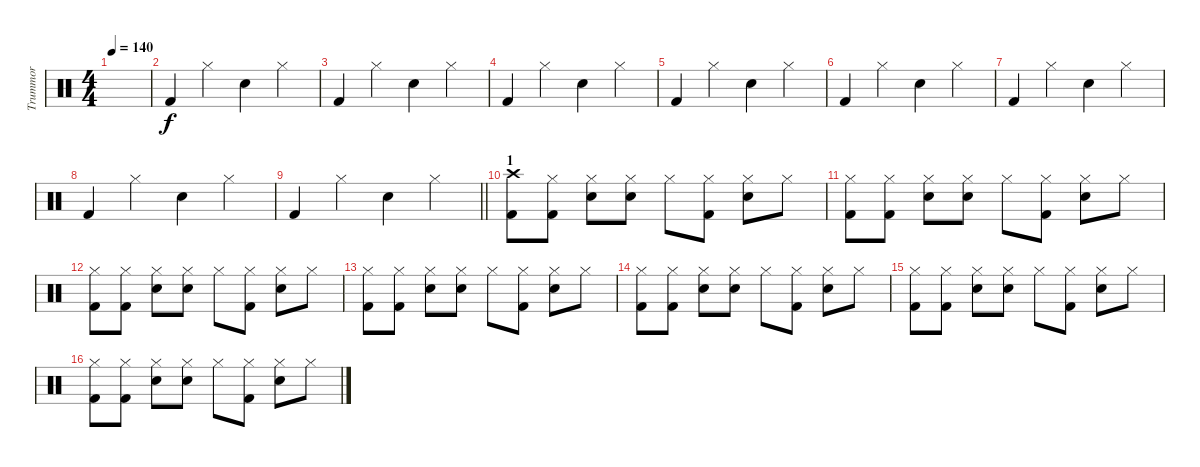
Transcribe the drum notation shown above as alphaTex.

\track ("Trummor" "Trummor") {instrument percussion}
\staff {score}
\articulation defaults
\ts (4 4)
\tempo 140
\clef neutral
\ks c
|
"Kick (hit) 2".4{volume 16} "Hi-Hat (closed)".4 "Electric Snare (hit)".4 "Hi-Hat (closed)".4 |
"Kick (hit) 2".4 "Hi-Hat (closed)".4 "Electric Snare (hit)".4 "Hi-Hat (closed)".4 |
"Kick (hit) 2".4 "Hi-Hat (closed)".4 "Electric Snare (hit)".4 "Hi-Hat (closed)".4 |
"Kick (hit) 2".4 "Hi-Hat (closed)".4 "Electric Snare (hit)".4 "Hi-Hat (closed)".4 |
"Kick (hit) 2".4 "Hi-Hat (closed)".4 "Electric Snare (hit)".4 "Hi-Hat (closed)".4 |
"Kick (hit) 2".4 "Hi-Hat (closed)".4 "Electric Snare (hit)".4 "Hi-Hat (closed)".4 |
"Kick (hit) 2".4 "Hi-Hat (closed)".4 "Electric Snare (hit)".4 "Hi-Hat (closed)".4 |
\barLineRight lightlight "Kick (hit) 2".4 "Hi-Hat (closed)".4 "Electric Snare (hit)".4 "Hi-Hat (closed)".4
|
\section ("" "1")
("Crash high (hit)" "Kick (hit) 2").8 ("Hi-Hat (closed)" "Kick (hit) 2").8 ("Hi-Hat (closed)" "Electric Snare (hit)").8 ("Hi-Hat (closed)" "Electric Snare (hit)").8 "Hi-Hat (closed)".8 ("Hi-Hat (closed)" "Kick (hit) 2").8 ("Hi-Hat (closed)" "Electric Snare (hit)").8 "Hi-Hat (closed)".8 |
("Hi-Hat (closed)" "Kick (hit) 2").8 ("Hi-Hat (closed)" "Kick (hit) 2").8 ("Hi-Hat (closed)" "Electric Snare (hit)").8 ("Hi-Hat (closed)" "Electric Snare (hit)").8 "Hi-Hat (closed)".8 ("Hi-Hat (closed)" "Kick (hit) 2").8 ("Hi-Hat (closed)" "Electric Snare (hit)").8 "Hi-Hat (closed)".8 |
("Hi-Hat (closed)" "Kick (hit) 2").8 ("Hi-Hat (closed)" "Kick (hit) 2").8 ("Hi-Hat (closed)" "Electric Snare (hit)").8 ("Hi-Hat (closed)" "Electric Snare (hit)").8 "Hi-Hat (closed)".8 ("Hi-Hat (closed)" "Kick (hit) 2").8 ("Hi-Hat (closed)" "Electric Snare (hit)").8 "Hi-Hat (closed)".8 |
("Hi-Hat (closed)" "Kick (hit) 2").8 ("Hi-Hat (closed)" "Kick (hit) 2").8 ("Hi-Hat (closed)" "Electric Snare (hit)").8 ("Hi-Hat (closed)" "Electric Snare (hit)").8 "Hi-Hat (closed)".8 ("Hi-Hat (closed)" "Kick (hit) 2").8 ("Hi-Hat (closed)" "Electric Snare (hit)").8 "Hi-Hat (closed)".8 |
("Hi-Hat (closed)" "Kick (hit) 2").8 ("Hi-Hat (closed)" "Kick (hit) 2").8 ("Hi-Hat (closed)" "Electric Snare (hit)").8 ("Hi-Hat (closed)" "Electric Snare (hit)").8 "Hi-Hat (closed)".8 ("Hi-Hat (closed)" "Kick (hit) 2").8 ("Hi-Hat (closed)" "Electric Snare (hit)").8 "Hi-Hat (closed)".8 |
("Hi-Hat (closed)" "Kick (hit) 2").8 ("Hi-Hat (closed)" "Kick (hit) 2").8 ("Hi-Hat (closed)" "Electric Snare (hit)").8 ("Hi-Hat (closed)" "Electric Snare (hit)").8 "Hi-Hat (closed)".8 ("Hi-Hat (closed)" "Kick (hit) 2").8 ("Hi-Hat (closed)" "Electric Snare (hit)").8 "Hi-Hat (closed)".8 |
("Hi-Hat (closed)" "Kick (hit) 2").8 ("Hi-Hat (closed)" "Kick (hit) 2").8 ("Hi-Hat (closed)" "Electric Snare (hit)").8 ("Hi-Hat (closed)" "Electric Snare (hit)").8 "Hi-Hat (closed)".8 ("Hi-Hat (closed)" "Kick (hit) 2").8 ("Hi-Hat (closed)" "Electric Snare (hit)").8 "Hi-Hat (closed)".8
